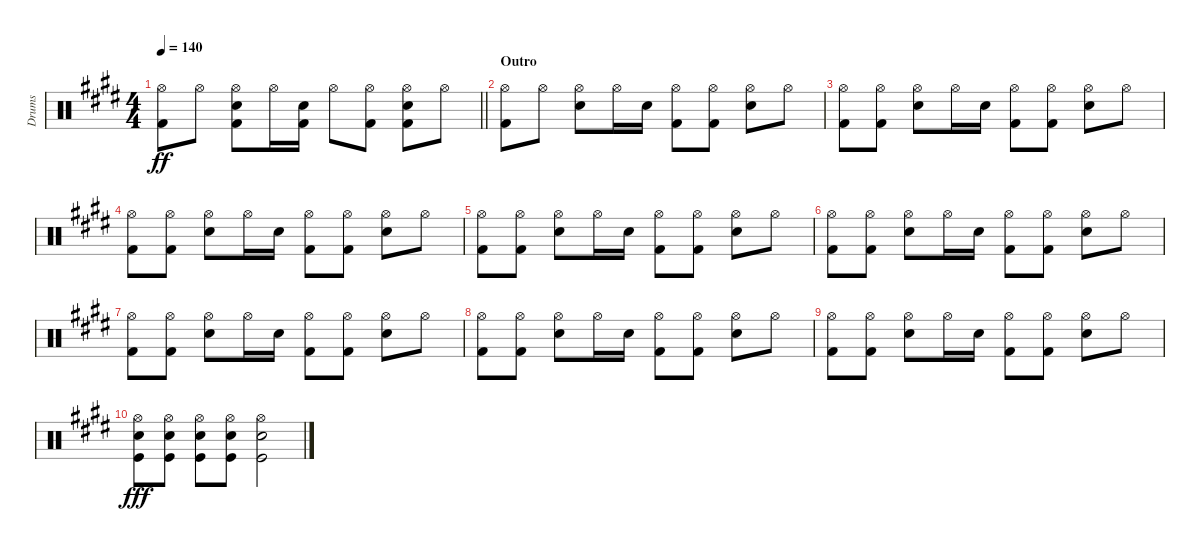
\track ("Drums" "Drums") {instrument percussion}
\staff {score}
\articulation defaults
\ts (4 4)
\tempo 140
\clef neutral
\barLineRight lightlight
\ks c#minor
("Hi-Hat (open)" "Kick (hit) 2").8{dy ff} "Hi-Hat (open)".8 ("Hi-Hat (open)" "Snare (hit) 2" "Kick (hit) 2").8 "Hi-Hat (open)".16 ("Snare (hit) 2" "Kick (hit) 2").16 "Hi-Hat (open)".8 ("Hi-Hat (open)" "Kick (hit) 2").8 ("Hi-Hat (open)" "Snare (hit) 2" "Kick (hit) 2").8 "Hi-Hat (open)".8 |
\section ("" "Outro")
("Hi-Hat (open)" "Kick (hit) 2").8 "Hi-Hat (open)".8 ("Hi-Hat (open)" "Snare (hit) 2").8 "Hi-Hat (open)".16 "Snare (hit) 2".16 ("Hi-Hat (open)" "Kick (hit) 2").8 ("Hi-Hat (open)" "Kick (hit) 2").8 ("Hi-Hat (open)" "Snare (hit) 2").8 "Hi-Hat (open)".8 |
("Hi-Hat (open)" "Kick (hit) 2").8 ("Hi-Hat (open)" "Kick (hit) 2").8 ("Hi-Hat (open)" "Snare (hit) 2").8 "Hi-Hat (open)".16 "Snare (hit) 2".16 ("Hi-Hat (open)" "Kick (hit) 2").8 ("Hi-Hat (open)" "Kick (hit) 2").8 ("Hi-Hat (open)" "Snare (hit) 2").8 "Hi-Hat (open)".8 |
("Hi-Hat (open)" "Kick (hit) 2").8 ("Hi-Hat (open)" "Kick (hit) 2").8 ("Hi-Hat (open)" "Snare (hit) 2").8 "Hi-Hat (open)".16 "Snare (hit) 2".16 ("Hi-Hat (open)" "Kick (hit) 2").8 ("Hi-Hat (open)" "Kick (hit) 2").8 ("Hi-Hat (open)" "Snare (hit) 2").8 "Hi-Hat (open)".8 |
("Hi-Hat (open)" "Kick (hit) 2").8 ("Hi-Hat (open)" "Kick (hit) 2").8 ("Hi-Hat (open)" "Snare (hit) 2").8 "Hi-Hat (open)".16 "Snare (hit) 2".16 ("Hi-Hat (open)" "Kick (hit) 2").8 ("Hi-Hat (open)" "Kick (hit) 2").8 ("Hi-Hat (open)" "Snare (hit) 2").8 "Hi-Hat (open)".8 |
("Hi-Hat (open)" "Kick (hit) 2").8 ("Hi-Hat (open)" "Kick (hit) 2").8 ("Hi-Hat (open)" "Snare (hit) 2").8 "Hi-Hat (open)".16 "Snare (hit) 2".16 ("Hi-Hat (open)" "Kick (hit) 2").8 ("Hi-Hat (open)" "Kick (hit) 2").8 ("Hi-Hat (open)" "Snare (hit) 2").8 "Hi-Hat (open)".8 |
("Hi-Hat (open)" "Kick (hit) 2").8 ("Hi-Hat (open)" "Kick (hit) 2").8 ("Hi-Hat (open)" "Snare (hit) 2").8 "Hi-Hat (open)".16 "Snare (hit) 2".16 ("Hi-Hat (open)" "Kick (hit) 2").8 ("Hi-Hat (open)" "Kick (hit) 2").8 ("Hi-Hat (open)" "Snare (hit) 2").8 "Hi-Hat (open)".8 |
("Hi-Hat (open)" "Kick (hit) 2").8 ("Hi-Hat (open)" "Kick (hit) 2").8 ("Hi-Hat (open)" "Snare (hit) 2").8 "Hi-Hat (open)".16 "Snare (hit) 2".16 ("Hi-Hat (open)" "Kick (hit) 2").8 ("Hi-Hat (open)" "Kick (hit) 2").8 ("Hi-Hat (open)" "Snare (hit) 2").8 "Hi-Hat (open)".8 |
("Hi-Hat (open)" "Kick (hit) 2").8 ("Hi-Hat (open)" "Kick (hit) 2").8 ("Hi-Hat (open)" "Snare (hit) 2").8 "Hi-Hat (open)".16 "Snare (hit) 2".16 ("Hi-Hat (open)" "Kick (hit) 2").8 ("Hi-Hat (open)" "Kick (hit) 2").8 ("Hi-Hat (open)" "Snare (hit) 2").8 "Hi-Hat (open)".8 |
("Hi-Hat (open)" "Kick (hit)" "Snare (hit) 2").8{dy fff} ("Hi-Hat (open)" "Kick (hit)" "Snare (hit) 2").8 ("Hi-Hat (open)" "Kick (hit)" "Snare (hit) 2").8 ("Hi-Hat (open)" "Kick (hit)" "Snare (hit) 2").8 ("Hi-Hat (open)" "Kick (hit)" "Snare (hit) 2").2
